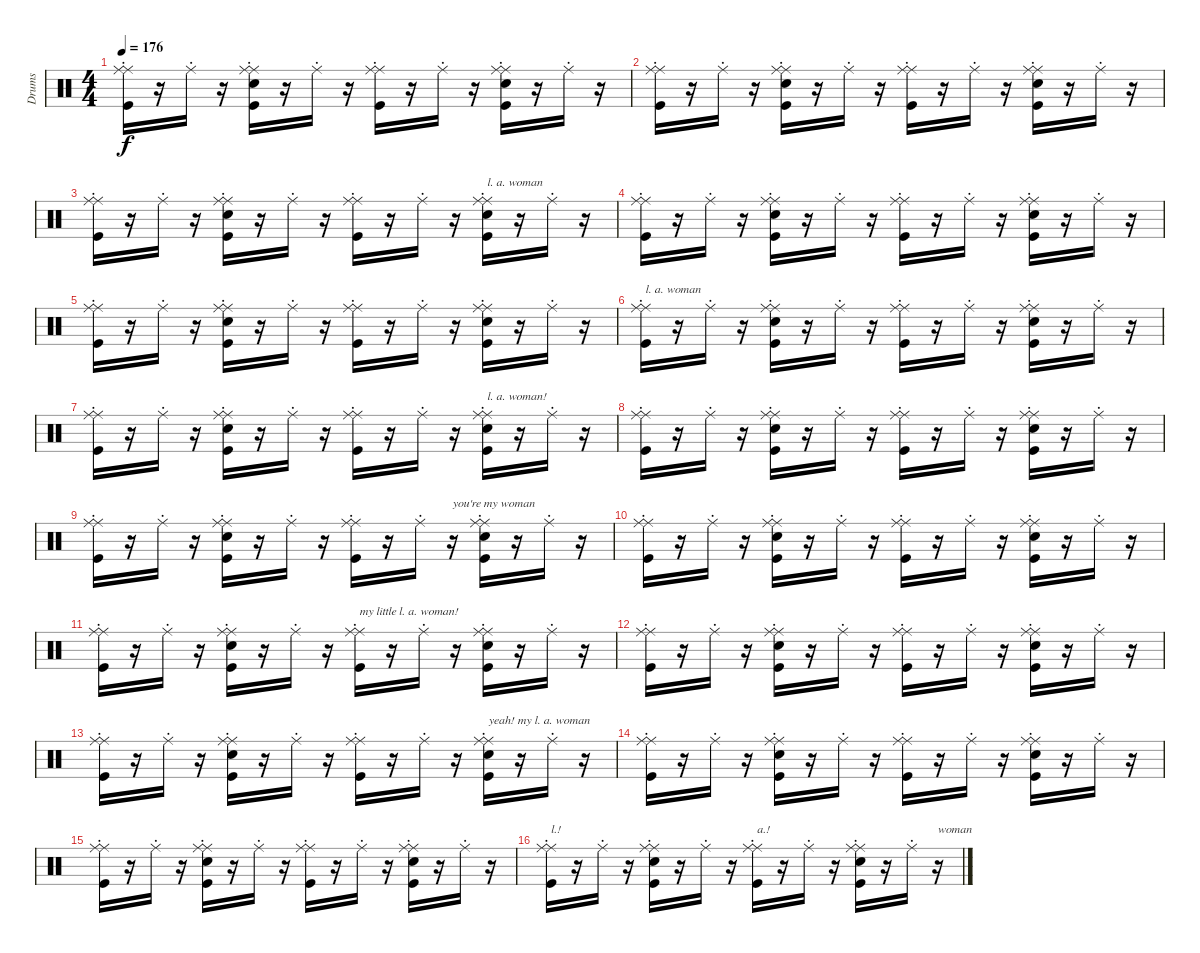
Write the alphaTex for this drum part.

\track ("Drums" "Drums") {instrument percussion}
\staff {score}
\articulation defaults
\ts (4 4)
\tempo 176
\clef neutral
\ks c
("Ride (middle)" "Kick (hit)" "Ride (choke)").16{dy f} r.16 "Ride (choke)".16 r.16 ("Ride (middle)" "Kick (hit)" "Snare (hit) 2" "Ride (choke)").16 r.16 "Ride (choke)".16 r.16 ("Ride (middle)" "Kick (hit)" "Ride (choke)").16 r.16 "Ride (choke)".16 r.16 ("Kick (hit)" "Snare (hit) 2" "Ride (choke)" "Ride (middle)").16 r.16 "Ride (choke)".16 r.16 |
("Ride (middle)" "Kick (hit)" "Ride (choke)").16 r.16 "Ride (choke)".16 r.16 ("Ride (middle)" "Kick (hit)" "Snare (hit) 2" "Ride (choke)").16 r.16 "Ride (choke)".16 r.16 ("Ride (middle)" "Kick (hit)" "Ride (choke)").16 r.16 "Ride (choke)".16 r.16 ("Ride (middle)" "Kick (hit)" "Snare (hit) 2" "Ride (choke)").16 r.16 "Ride (choke)".16 r.16 |
("Ride (middle)" "Kick (hit)" "Ride (choke)").16 r.16 "Ride (choke)".16 r.16 ("Ride (middle)" "Kick (hit)" "Snare (hit) 2" "Ride (choke)").16 r.16 "Ride (choke)".16 r.16 ("Ride (middle)" "Kick (hit)" "Ride (choke)").16 r.16 "Ride (choke)".16 r.16 ("Kick (hit)" "Snare (hit) 2" "Ride (choke)" "Ride (middle)").16{txt "l. a. woman"} r.16 "Ride (choke)".16 r.16 |
("Ride (middle)" "Kick (hit)" "Ride (choke)").16 r.16 "Ride (choke)".16 r.16 ("Ride (middle)" "Kick (hit)" "Snare (hit) 2" "Ride (choke)").16 r.16 "Ride (choke)".16 r.16 ("Ride (middle)" "Kick (hit)" "Ride (choke)").16 r.16 "Ride (choke)".16 r.16 ("Ride (middle)" "Kick (hit)" "Snare (hit) 2" "Ride (choke)").16 r.16 "Ride (choke)".16 r.16 |
("Ride (middle)" "Kick (hit)" "Ride (choke)").16 r.16 "Ride (choke)".16 r.16 ("Ride (middle)" "Kick (hit)" "Snare (hit) 2" "Ride (choke)").16 r.16 "Ride (choke)".16 r.16 ("Ride (middle)" "Kick (hit)" "Ride (choke)").16 r.16 "Ride (choke)".16 r.16 ("Kick (hit)" "Snare (hit) 2" "Ride (choke)" "Ride (middle)").16 r.16 "Ride (choke)".16 r.16 |
("Ride (middle)" "Kick (hit)" "Ride (choke)").16{txt "l. a. woman"} r.16 "Ride (choke)".16 r.16 ("Ride (middle)" "Kick (hit)" "Snare (hit) 2" "Ride (choke)").16 r.16 "Ride (choke)".16 r.16 ("Ride (middle)" "Kick (hit)" "Ride (choke)").16 r.16 "Ride (choke)".16 r.16 ("Ride (middle)" "Kick (hit)" "Snare (hit) 2" "Ride (choke)").16 r.16 "Ride (choke)".16 r.16 |
("Ride (middle)" "Kick (hit)" "Ride (choke)").16 r.16 "Ride (choke)".16 r.16 ("Ride (middle)" "Kick (hit)" "Snare (hit) 2" "Ride (choke)").16 r.16 "Ride (choke)".16 r.16 ("Ride (middle)" "Kick (hit)" "Ride (choke)").16 r.16 "Ride (choke)".16 r.16 ("Kick (hit)" "Snare (hit) 2" "Ride (choke)" "Ride (middle)").16{txt "l. a. woman!"} r.16 "Ride (choke)".16 r.16 |
("Ride (middle)" "Kick (hit)" "Ride (choke)").16 r.16 "Ride (choke)".16 r.16 ("Ride (middle)" "Kick (hit)" "Snare (hit) 2" "Ride (choke)").16 r.16 "Ride (choke)".16 r.16 ("Ride (middle)" "Kick (hit)" "Ride (choke)").16 r.16 "Ride (choke)".16 r.16 ("Ride (middle)" "Kick (hit)" "Snare (hit) 2" "Ride (choke)").16 r.16 "Ride (choke)".16 r.16 |
("Ride (middle)" "Kick (hit)" "Ride (choke)").16 r.16 "Ride (choke)".16 r.16 ("Ride (middle)" "Kick (hit)" "Snare (hit) 2" "Ride (choke)").16 r.16 "Ride (choke)".16 r.16 ("Ride (middle)" "Kick (hit)" "Ride (choke)").16 r.16 "Ride (choke)".16 r.16{txt "you're my woman"} ("Ride (middle)" "Kick (hit)" "Snare (hit) 2" "Ride (choke)").16 r.16 "Ride (choke)".16 r.16 |
("Ride (middle)" "Kick (hit)" "Ride (choke)").16 r.16 "Ride (choke)".16 r.16 ("Ride (middle)" "Kick (hit)" "Snare (hit) 2" "Ride (choke)").16 r.16 "Ride (choke)".16 r.16 ("Ride (middle)" "Kick (hit)" "Ride (choke)").16 r.16 "Ride (choke)".16 r.16 ("Ride (middle)" "Kick (hit)" "Snare (hit) 2" "Ride (choke)").16 r.16 "Ride (choke)".16 r.16 |
("Ride (middle)" "Kick (hit)" "Ride (choke)").16 r.16 "Ride (choke)".16 r.16 ("Ride (middle)" "Kick (hit)" "Snare (hit) 2" "Ride (choke)").16 r.16 "Ride (choke)".16 r.16 ("Ride (middle)" "Kick (hit)" "Ride (choke)").16{txt "my little l. a. woman!"} r.16 "Ride (choke)".16 r.16 ("Ride (middle)" "Kick (hit)" "Snare (hit) 2" "Ride (choke)").16 r.16 "Ride (choke)".16 r.16 |
("Ride (middle)" "Kick (hit)" "Ride (choke)").16 r.16 "Ride (choke)".16 r.16 ("Ride (middle)" "Kick (hit)" "Snare (hit) 2" "Ride (choke)").16 r.16 "Ride (choke)".16 r.16 ("Ride (middle)" "Kick (hit)" "Ride (choke)").16 r.16 "Ride (choke)".16 r.16 ("Ride (middle)" "Kick (hit)" "Snare (hit) 2" "Ride (choke)").16 r.16 "Ride (choke)".16 r.16 |
("Ride (middle)" "Kick (hit)" "Ride (choke)").16 r.16 "Ride (choke)".16 r.16 ("Ride (middle)" "Kick (hit)" "Snare (hit) 2" "Ride (choke)").16 r.16 "Ride (choke)".16 r.16 ("Ride (middle)" "Kick (hit)" "Ride (choke)").16 r.16 "Ride (choke)".16 r.16 ("Ride (middle)" "Kick (hit)" "Snare (hit) 2" "Ride (choke)").16{txt "yeah! my l. a. woman"} r.16 "Ride (choke)".16 r.16 |
("Ride (middle)" "Kick (hit)" "Ride (choke)").16 r.16 "Ride (choke)".16 r.16 ("Ride (middle)" "Kick (hit)" "Snare (hit) 2" "Ride (choke)").16 r.16 "Ride (choke)".16 r.16 ("Ride (middle)" "Kick (hit)" "Ride (choke)").16 r.16 "Ride (choke)".16 r.16 ("Ride (middle)" "Kick (hit)" "Snare (hit) 2" "Ride (choke)").16 r.16 "Ride (choke)".16 r.16 |
("Ride (middle)" "Kick (hit)" "Ride (choke)").16 r.16 "Ride (choke)".16 r.16 ("Ride (middle)" "Kick (hit)" "Snare (hit) 2" "Ride (choke)").16 r.16 "Ride (choke)".16 r.16 ("Ride (middle)" "Kick (hit)" "Ride (choke)").16 r.16 "Ride (choke)".16 r.16 ("Ride (middle)" "Kick (hit)" "Snare (hit) 2" "Ride (choke)").16 r.16 "Ride (choke)".16 r.16 |
("Ride (middle)" "Kick (hit)" "Ride (choke)").16{txt "l.!"} r.16 "Ride (choke)".16 r.16 ("Ride (middle)" "Kick (hit)" "Snare (hit) 2" "Ride (choke)").16 r.16 "Ride (choke)".16 r.16 ("Ride (middle)" "Kick (hit)" "Ride (choke)").16{txt "a.!"} r.16 "Ride (choke)".16 r.16 ("Ride (middle)" "Kick (hit)" "Snare (hit) 2" "Ride (choke)").16 r.16 "Ride (choke)".16 r.16{txt "woman"}
